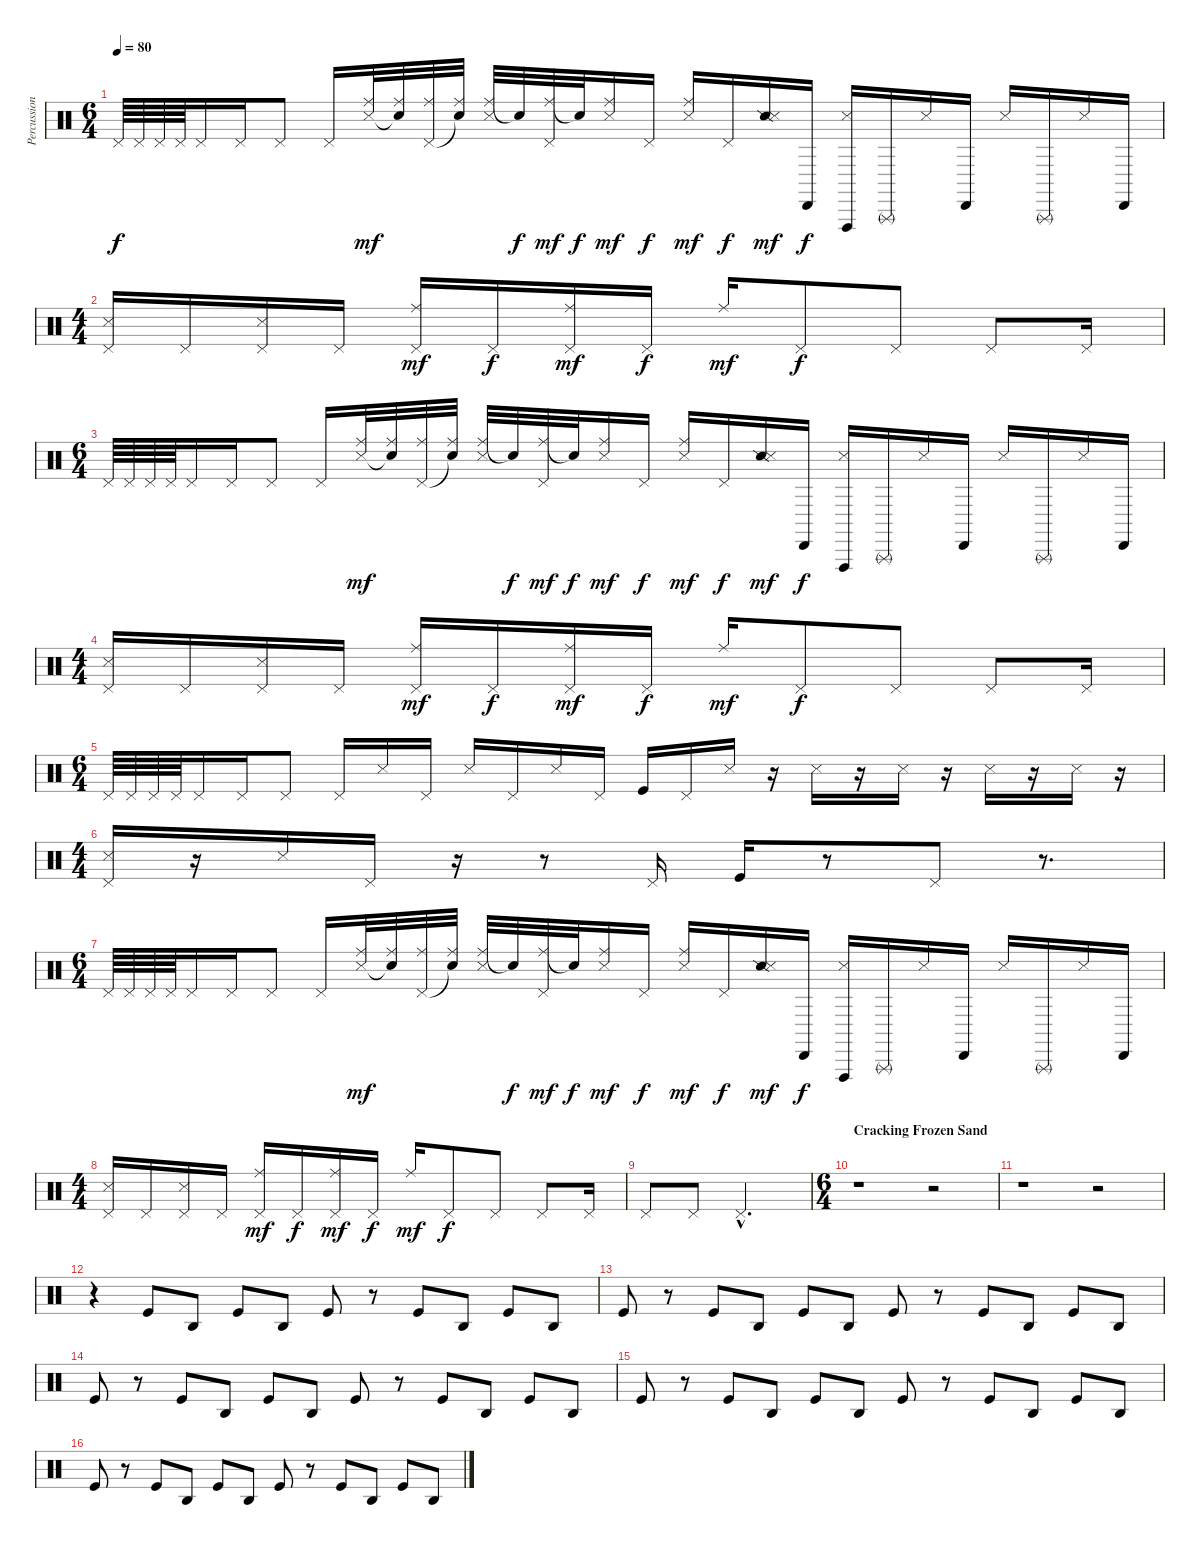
\track ("Percussion" "Percussion") {instrument percussion}
\staff {score}
\articulation defaults
\ts (6 4)
\tempo 80
\clef neutral
\ks c "Pedal Hi-Hat (hit)".64{dy f} "Pedal Hi-Hat (hit)".64 "Pedal Hi-Hat (hit)".64 "Pedal Hi-Hat (hit)".64 "Pedal Hi-Hat (hit)".16 "Pedal Hi-Hat (hit)".16 "Pedal Hi-Hat (hit)".8 "Pedal Hi-Hat (hit)".16
("Ride (middle)" "Metronome (hit)").32{dy mf} ("Ride (middle)" "Snare (hit)"{t}).32 ("Ride (middle)" "Pedal Hi-Hat (hit)").32 ("Ride (middle)" "Snare (hit)"{t}).32 ("Ride (middle)" "Metronome (hit)").32 "Snare (hit)"{t}.32{dy f} ("Ride (middle)" "Pedal Hi-Hat (hit)").32{dy mf} "Snare (hit)"{t}.32{dy f} ("Ride (middle)" "Metronome (hit)").16{dy mf} "Pedal Hi-Hat (hit)".16{dy f} ("Ride (middle)" "Metronome (hit)").16{dy mf} "Pedal Hi-Hat (hit)".16{dy f} ("Snare (side stick) 2" "Metronome (hit)").16{dy mf} "Cabasa (hit)".16{dy f} ("Vibraslap (hit)" "Metronome (hit)").16 "Triangle (rnute)".16 "Metronome (hit)".16 "Cabasa (hit)".16 "Metronome (hit)".16 "Triangle (rnute)".16 "Metronome (hit)".16 "Cabasa (hit)".16 |
\ts (4 4)
("Pedal Hi-Hat (hit)" "Metronome (hit)").16 "Pedal Hi-Hat (hit)".16 ("Pedal Hi-Hat (hit)" "Metronome (hit)").16 "Pedal Hi-Hat (hit)".16 ("Ride (middle)" "Pedal Hi-Hat (hit)").16{dy mf} "Pedal Hi-Hat (hit)".16{dy f} ("Ride (middle)" "Pedal Hi-Hat (hit)").16{dy mf} "Pedal Hi-Hat (hit)".16{dy f} "Ride (middle)".16{dy mf} "Pedal Hi-Hat (hit)".8{dy f} "Pedal Hi-Hat (hit)".8 "Pedal Hi-Hat (hit)".8 "Pedal Hi-Hat (hit)".16 |
\ts (6 4)
"Pedal Hi-Hat (hit)".64 "Pedal Hi-Hat (hit)".64 "Pedal Hi-Hat (hit)".64 "Pedal Hi-Hat (hit)".64 "Pedal Hi-Hat (hit)".16 "Pedal Hi-Hat (hit)".16 "Pedal Hi-Hat (hit)".8 "Pedal Hi-Hat (hit)".16 ("Ride (middle)" "Metronome (hit)").32{dy mf} ("Ride (middle)" "Snare (hit)"{t}).32 ("Ride (middle)" "Pedal Hi-Hat (hit)").32 ("Ride (middle)" "Snare (hit)"{t}).32 ("Ride (middle)" "Metronome (hit)").32 "Snare (hit)"{t}.32{dy f} ("Ride (middle)" "Pedal Hi-Hat (hit)").32{dy mf} "Snare (hit)"{t}.32{dy f} ("Ride (middle)" "Metronome (hit)").16{dy mf} "Pedal Hi-Hat (hit)".16{dy f} ("Ride (middle)" "Metronome (hit)").16{dy mf} "Pedal Hi-Hat (hit)".16{dy f} ("Snare (side stick) 2" "Metronome (hit)").16{dy mf} "Cabasa (hit)".16{dy f} ("Vibraslap (hit)" "Metronome (hit)").16 "Triangle (rnute)".16 "Metronome (hit)".16 "Cabasa (hit)".16 "Metronome (hit)".16 "Triangle (rnute)".16 "Metronome (hit)".16 "Cabasa (hit)".16 |
\ts (4 4)
("Pedal Hi-Hat (hit)" "Metronome (hit)").16 "Pedal Hi-Hat (hit)".16 ("Pedal Hi-Hat (hit)" "Metronome (hit)").16 "Pedal Hi-Hat (hit)".16 ("Ride (middle)" "Pedal Hi-Hat (hit)").16{dy mf} "Pedal Hi-Hat (hit)".16{dy f} ("Ride (middle)" "Pedal Hi-Hat (hit)").16{dy mf} "Pedal Hi-Hat (hit)".16{dy f} "Ride (middle)".16{dy mf} "Pedal Hi-Hat (hit)".8{dy f} "Pedal Hi-Hat (hit)".8 "Pedal Hi-Hat (hit)".8 "Pedal Hi-Hat (hit)".16 |
\ts (6 4)
"Pedal Hi-Hat (hit)".64 "Pedal Hi-Hat (hit)".64 "Pedal Hi-Hat (hit)".64 "Pedal Hi-Hat (hit)".64 "Pedal Hi-Hat (hit)".16 "Pedal Hi-Hat (hit)".16 "Pedal Hi-Hat (hit)".8 "Pedal Hi-Hat (hit)".16 "Metronome (hit)".16 "Pedal Hi-Hat (hit)".16 "Metronome (hit)".16 "Pedal Hi-Hat (hit)".16 "Metronome (hit)".16 "Pedal Hi-Hat (hit)".16 "Kick (hit)".16 "Pedal Hi-Hat (hit)".16 "Metronome (hit)".16 r.16 "Metronome (hit)".16 r.16 "Metronome (hit)".16 r.16 "Metronome (hit)".16 r.16 "Metronome (hit)".16 r.16 |
\ts (4 4)
("Pedal Hi-Hat (hit)" "Metronome (hit)").16 r.16 "Metronome (hit)".16 "Pedal Hi-Hat (hit)".16 r.16 r.8 "Pedal Hi-Hat (hit)".16 "Kick (hit)".16 r.8 "Pedal Hi-Hat (hit)".8 r.8{d} |
\ts (6 4)
"Pedal Hi-Hat (hit)".64 "Pedal Hi-Hat (hit)".64 "Pedal Hi-Hat (hit)".64 "Pedal Hi-Hat (hit)".64 "Pedal Hi-Hat (hit)".16 "Pedal Hi-Hat (hit)".16 "Pedal Hi-Hat (hit)".8 "Pedal Hi-Hat (hit)".16 ("Ride (middle)" "Metronome (hit)").32{dy mf} ("Ride (middle)" "Snare (hit)"{t}).32 ("Ride (middle)" "Pedal Hi-Hat (hit)").32 ("Ride (middle)" "Snare (hit)"{t}).32 ("Ride (middle)" "Metronome (hit)").32 "Snare (hit)"{t}.32{dy f} ("Ride (middle)" "Pedal Hi-Hat (hit)").32{dy mf} "Snare (hit)"{t}.32{dy f} ("Ride (middle)" "Metronome (hit)").16{dy mf} "Pedal Hi-Hat (hit)".16{dy f} ("Ride (middle)" "Metronome (hit)").16{dy mf} "Pedal Hi-Hat (hit)".16{dy f} ("Snare (side stick) 2" "Metronome (hit)").16{dy mf} "Cabasa (hit)".16{dy f} ("Vibraslap (hit)" "Metronome (hit)").16 "Triangle (rnute)".16 "Metronome (hit)".16 "Cabasa (hit)".16 "Metronome (hit)".16 "Triangle (rnute)".16 "Metronome (hit)".16 "Cabasa (hit)".16 |
\ts (4 4)
("Pedal Hi-Hat (hit)" "Metronome (hit)").16 "Pedal Hi-Hat (hit)".16 ("Pedal Hi-Hat (hit)" "Metronome (hit)").16 "Pedal Hi-Hat (hit)".16 ("Ride (middle)" "Pedal Hi-Hat (hit)").16{dy mf} "Pedal Hi-Hat (hit)".16{dy f} ("Ride (middle)" "Pedal Hi-Hat (hit)").16{dy mf} "Pedal Hi-Hat (hit)".16{dy f} "Ride (middle)".16{dy mf} "Pedal Hi-Hat (hit)".8{dy f} "Pedal Hi-Hat (hit)".8 "Pedal Hi-Hat (hit)".8 "Pedal Hi-Hat (hit)".16 |
"Pedal Hi-Hat (hit)".8 "Pedal Hi-Hat (hit)".8 "Pedal Hi-Hat (hit)"{hac}.2{d} |
\ts (6 4)
\section ("" "Cracking Frozen Sand")
r.1 r.2 |
r.1 r.2 |
r.4 "Kick (hit)".8 "Agogo high (hit)".8 "Kick (hit)".8 "Agogo high (hit)".8 "Kick (hit)".8 r.8 "Kick (hit)".8 "Agogo high (hit)".8 "Kick (hit)".8 "Agogo high (hit)".8 |
"Kick (hit)".8 r.8 "Kick (hit)".8 "Agogo high (hit)".8 "Kick (hit)".8 "Agogo high (hit)".8 "Kick (hit)".8 r.8 "Kick (hit)".8 "Agogo high (hit)".8 "Kick (hit)".8 "Agogo high (hit)".8 |
"Kick (hit)".8 r.8 "Kick (hit)".8 "Agogo high (hit)".8 "Kick (hit)".8 "Agogo high (hit)".8 "Kick (hit)".8 r.8 "Kick (hit)".8 "Agogo high (hit)".8 "Kick (hit)".8 "Agogo high (hit)".8 |
"Kick (hit)".8 r.8 "Kick (hit)".8 "Agogo high (hit)".8 "Kick (hit)".8 "Agogo high (hit)".8 "Kick (hit)".8 r.8 "Kick (hit)".8 "Agogo high (hit)".8 "Kick (hit)".8 "Agogo high (hit)".8 |
"Kick (hit)".8 r.8 "Kick (hit)".8 "Agogo high (hit)".8 "Kick (hit)".8 "Agogo high (hit)".8 "Kick (hit)".8 r.8 "Kick (hit)".8 "Agogo high (hit)".8 "Kick (hit)".8 "Agogo high (hit)".8
